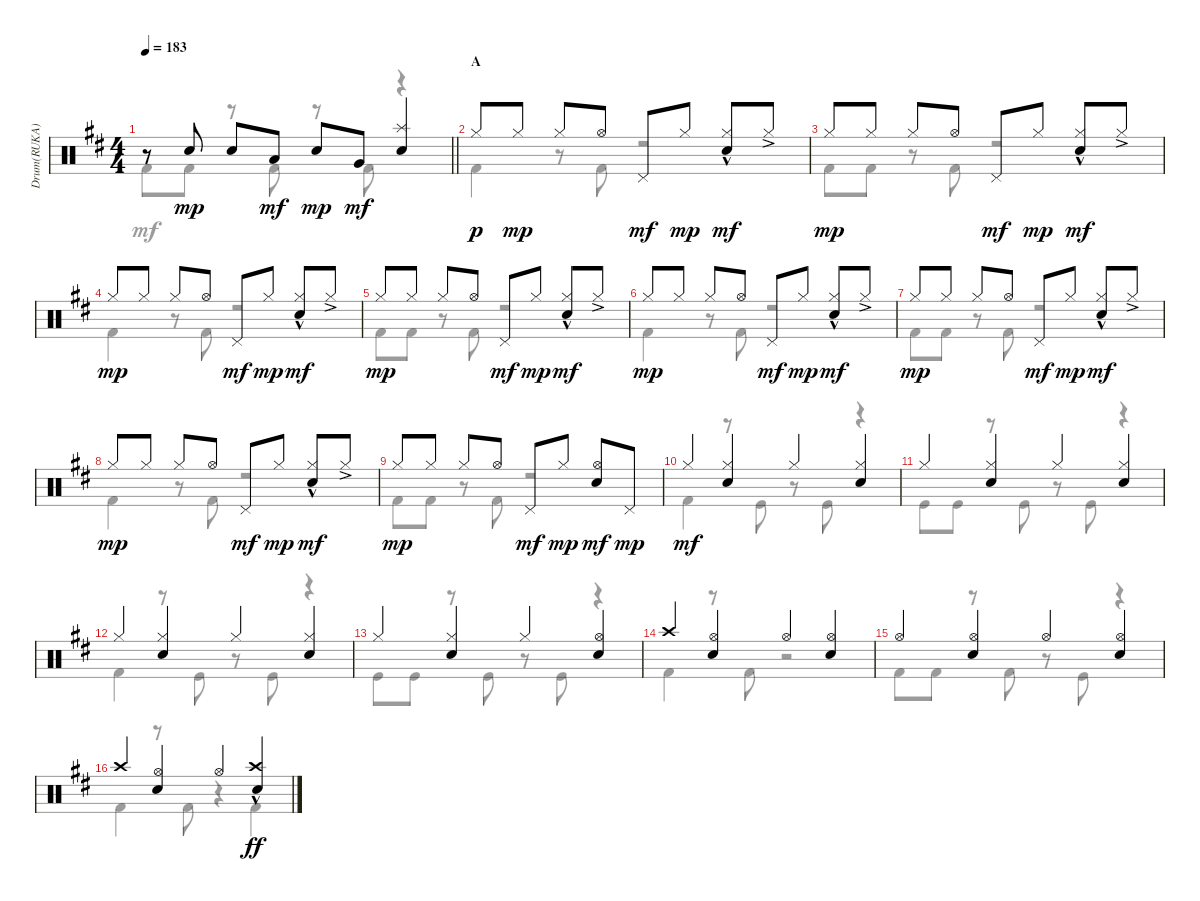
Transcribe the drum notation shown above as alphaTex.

\track ("Drum(RUKA)" "Drum(RUKA)") {instrument percussion}
\staff {score}
\articulation defaults
\voice
\ts (4 4)
\tempo 183
\clef neutral
\barLineRight lightlight
\ks d
r.8{dy mf} "Snare (hit) 2".8{dy mp} "Snare (hit) 2".8 "Low Tom (hit)".8{dy mf} "Snare (hit) 2".8{dy mp} "Very Low Tom (hit)".8{dy mf} ("Splash (hit)" "Snare (hit) 2").4 |
\section ("" "A")
"Hi-Hat (closed)".8{dy p} "Hi-Hat (closed)".8{dy mp} "Hi-Hat (closed)".8 "Hi-Hat (open)".8 "Pedal Hi-Hat (hit)".8{dy mf} "Hi-Hat (closed)".8{dy mp} ("Hi-Hat (closed)"{hac} "Snare (hit) 2").8{dy mf} "Hi-Hat (closed)"{ac}.8 |
"Hi-Hat (closed)".8{dy mp} "Hi-Hat (closed)".8 "Hi-Hat (closed)".8 "Hi-Hat (open)".8 "Pedal Hi-Hat (hit)".8{dy mf} "Hi-Hat (closed)".8{dy mp} ("Hi-Hat (closed)"{hac} "Snare (hit) 2").8{dy mf} "Hi-Hat (closed)"{ac}.8 |
"Hi-Hat (closed)".8{dy mp} "Hi-Hat (closed)".8 "Hi-Hat (closed)".8 "Hi-Hat (open)".8 "Pedal Hi-Hat (hit)".8{dy mf} "Hi-Hat (closed)".8{dy mp} ("Hi-Hat (closed)"{hac} "Snare (hit) 2").8{dy mf} "Hi-Hat (closed)"{ac}.8 |
"Hi-Hat (closed)".8{dy mp} "Hi-Hat (closed)".8 "Hi-Hat (closed)".8 "Hi-Hat (open)".8 "Pedal Hi-Hat (hit)".8{dy mf} "Hi-Hat (closed)".8{dy mp} ("Hi-Hat (closed)"{hac} "Snare (hit) 2").8{dy mf} "Hi-Hat (closed)"{ac}.8 |
"Hi-Hat (closed)".8{dy mp} "Hi-Hat (closed)".8 "Hi-Hat (closed)".8 "Hi-Hat (open)".8 "Pedal Hi-Hat (hit)".8{dy mf} "Hi-Hat (closed)".8{dy mp} ("Hi-Hat (closed)"{hac} "Snare (hit) 2").8{dy mf} "Hi-Hat (closed)"{ac}.8 |
"Hi-Hat (closed)".8{dy mp} "Hi-Hat (closed)".8 "Hi-Hat (closed)".8 "Hi-Hat (open)".8 "Pedal Hi-Hat (hit)".8{dy mf} "Hi-Hat (closed)".8{dy mp} ("Hi-Hat (closed)"{hac} "Snare (hit) 2").8{dy mf} "Hi-Hat (closed)"{ac}.8 |
"Hi-Hat (closed)".8{dy mp} "Hi-Hat (closed)".8 "Hi-Hat (closed)".8 "Hi-Hat (open)".8 "Pedal Hi-Hat (hit)".8{dy mf} "Hi-Hat (closed)".8{dy mp} ("Hi-Hat (closed)"{hac} "Snare (hit) 2").8{dy mf} "Hi-Hat (closed)"{ac}.8 |
"Hi-Hat (closed)".8{dy mp} "Hi-Hat (closed)".8 "Hi-Hat (closed)".8 "Hi-Hat (open)".8 "Pedal Hi-Hat (hit)".8{dy mf} "Hi-Hat (closed)".8{dy mp} ("Hi-Hat (open)" "Snare (hit) 2").8{dy mf} "Pedal Hi-Hat (hit)".8{dy mp} |
"Hi-Hat (closed)".4{dy mf} ("Hi-Hat (closed)" "Snare (hit) 2").4 "Hi-Hat (closed)".4 ("Hi-Hat (closed)" "Snare (hit) 2").4 |
"Hi-Hat (closed)".4 ("Hi-Hat (closed)" "Snare (hit) 2").4 "Hi-Hat (closed)".4 ("Hi-Hat (closed)" "Snare (hit) 2").4 |
"Hi-Hat (closed)".4 ("Hi-Hat (closed)" "Snare (hit) 2").4 "Hi-Hat (closed)".4 ("Hi-Hat (closed)" "Snare (hit) 2").4 |
"Hi-Hat (closed)".4 ("Hi-Hat (closed)" "Snare (hit) 2").4 "Hi-Hat (closed)".4 ("Hi-Hat (open)" "Snare (hit) 2").4 |
"Crash high (hit)".4 ("Hi-Hat (open)" "Snare (hit) 2").4 "Hi-Hat (open)".4 ("Hi-Hat (open)" "Snare (hit) 2").4 |
"Hi-Hat (open)".4 ("Hi-Hat (open)" "Snare (hit) 2").4 "Hi-Hat (open)".4 ("Hi-Hat (open)" "Snare (hit) 2").4 |
"Crash high (hit)".4 ("Hi-Hat (open)" "Snare (hit) 2").4 "Hi-Hat (open)".4 ("Crash high (hit)" "Snare (hit) 2"{hac}).4{dy ff}
\voice
\clef neutral
\ottava regular
\simile none
\barLineRight lightlight
\ks d "Kick (hit) 2".8{dy mf} "Kick (hit) 2".8
r.8 "Kick (hit) 2".8 r.8 "Kick (hit) 2".8 r.4 |
"Kick (hit) 2".4 r.8 "Kick (hit) 2".8 r.2 |
"Kick (hit) 2".8 "Kick (hit) 2".8 r.8 "Kick (hit) 2".8 r.2 |
"Kick (hit) 2".4 r.8 "Kick (hit) 2".8 r.2 |
"Kick (hit) 2".8 "Kick (hit) 2".8 r.8 "Kick (hit) 2".8 r.2 |
"Kick (hit) 2".4 r.8 "Kick (hit) 2".8 r.2 |
"Kick (hit) 2".8 "Kick (hit) 2".8 r.8 "Kick (hit) 2".8 r.2 |
"Kick (hit) 2".4 r.8 "Kick (hit) 2".8 r.2 |
"Kick (hit) 2".8 "Kick (hit) 2".8 r.8 "Kick (hit) 2".8 r.2 |
"Kick (hit) 2".4 r.8 "Kick (hit)".8 r.8 "Kick (hit)".8 r.4 |
"Kick (hit)".8 "Kick (hit)".8 r.8 "Kick (hit)".8 r.8 "Kick (hit)".8 r.4 |
"Kick (hit) 2".4 r.8 "Kick (hit)".8 r.8 "Kick (hit)".8 r.4 |
"Kick (hit)".8 "Kick (hit)".8 r.8 "Kick (hit)".8 r.8 "Kick (hit)".8 r.4 |
"Kick (hit) 2".4 r.8 "Kick (hit) 2".8 r.2 |
"Kick (hit) 2".8 "Kick (hit) 2".8 r.8 "Kick (hit) 2".8 r.8 "Kick (hit)".8 r.4 |
"Kick (hit) 2".4 r.8 "Kick (hit) 2".8 r.4 "Kick (hit) 2".4
